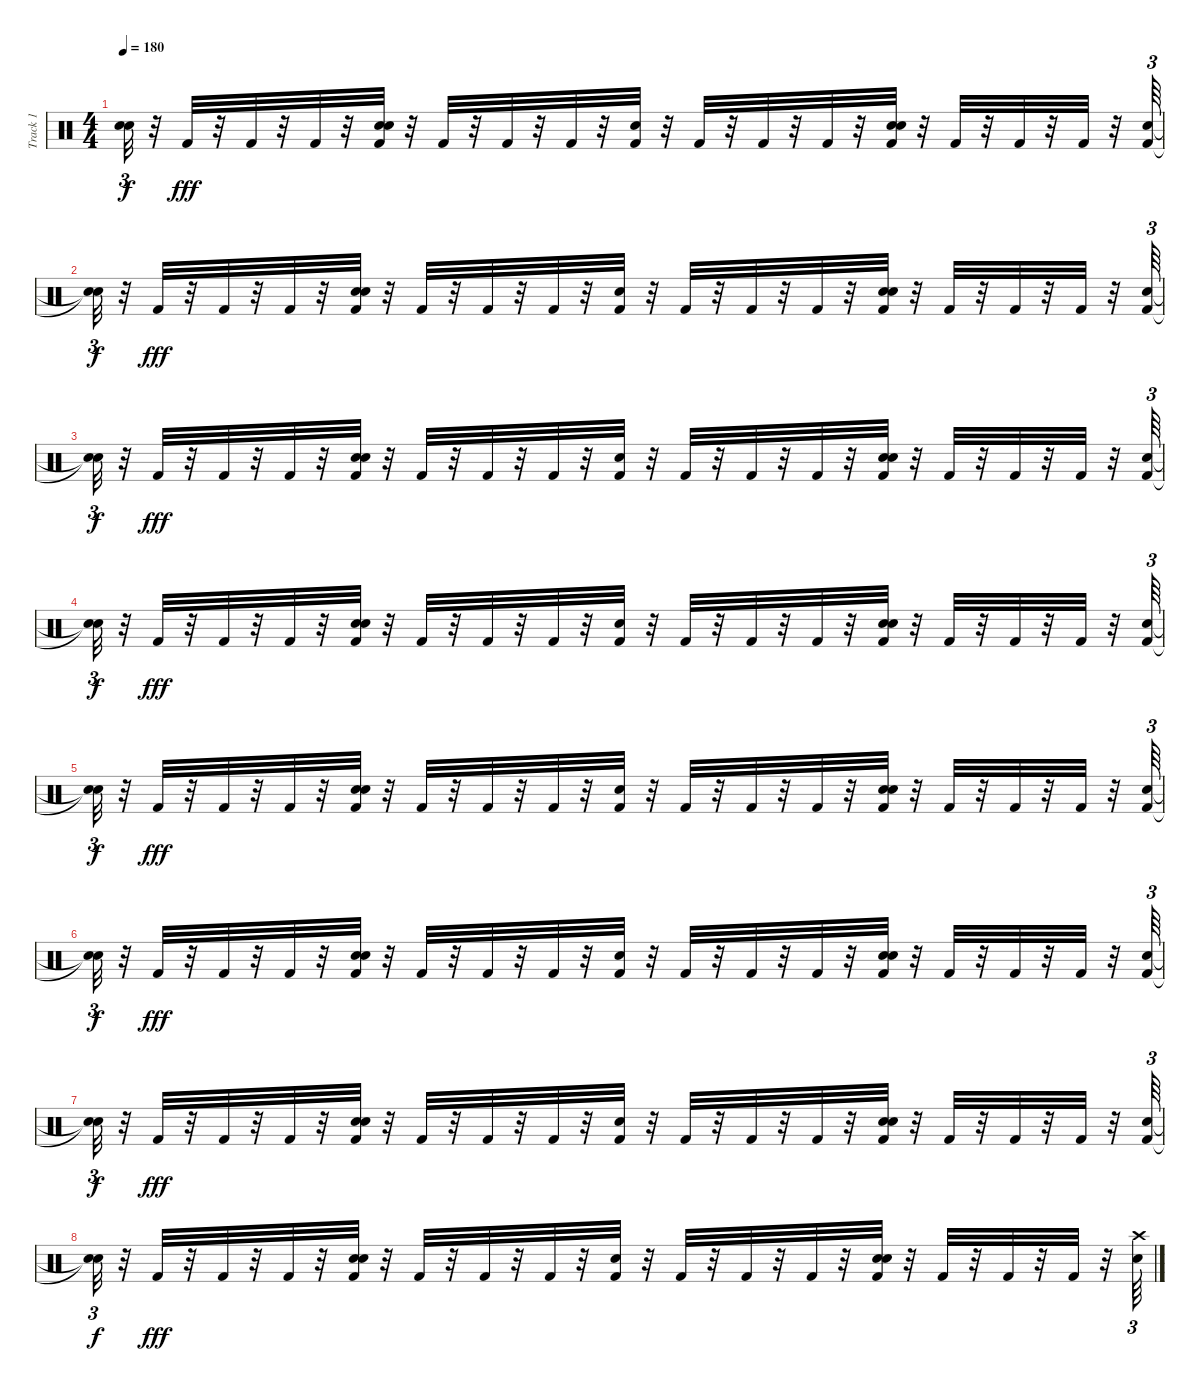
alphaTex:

\track ("Track 1" "Track 1") {mute instrument percussion}
\staff {score}
\articulation defaults
\ts (4 4)
\tempo 180
\clef neutral
\ks c
("Snare (hit)"{t} "Snare (hit)"{t}).32{tu (3 2) dy f} r.32 "Kick (hit) 2".32{dy fff} r.32 "Kick (hit) 2".32 r.32 "Kick (hit) 2".32 r.32 ("Snare (hit)" "Kick (hit) 2" "Snare (hit) 2").32 r.32 "Kick (hit) 2".32 r.32 "Kick (hit) 2".32 r.32 "Kick (hit) 2".32 r.32 ("Kick (hit) 2" "Snare (hit)").32 r.32 "Kick (hit) 2".32 r.32 "Kick (hit) 2".32 r.32 "Kick (hit) 2".32 r.32 ("Snare (hit)" "Kick (hit) 2" "Snare (hit) 2").32 r.32 "Kick (hit) 2".32 r.32 "Kick (hit) 2".32 r.32 "Kick (hit) 2".32 r.32 ("Kick (hit) 2" "Snare (hit)").64{tu (3 2)} |
("Snare (hit)"{t} "Snare (hit)"{t}).32{tu (3 2) dy f} r.32 "Kick (hit) 2".32{dy fff} r.32 "Kick (hit) 2".32 r.32 "Kick (hit) 2".32 r.32 ("Snare (hit)" "Kick (hit) 2" "Snare (hit) 2").32 r.32 "Kick (hit) 2".32 r.32 "Kick (hit) 2".32 r.32 "Kick (hit) 2".32 r.32 ("Kick (hit) 2" "Snare (hit)").32 r.32 "Kick (hit) 2".32 r.32 "Kick (hit) 2".32 r.32 "Kick (hit) 2".32 r.32 ("Snare (hit) 2" "Snare (hit)" "Kick (hit) 2").32 r.32 "Kick (hit) 2".32 r.32 "Kick (hit) 2".32 r.32 "Kick (hit) 2".32 r.32 ("Kick (hit) 2" "Snare (hit)").64{tu (3 2)} |
("Snare (hit)"{t} "Snare (hit)"{t}).32{tu (3 2) dy f} r.32 "Kick (hit) 2".32{dy fff} r.32 "Kick (hit) 2".32 r.32 "Kick (hit) 2".32 r.32 ("Snare (hit)" "Snare (hit) 2" "Kick (hit) 2").32 r.32 "Kick (hit) 2".32 r.32 "Kick (hit) 2".32 r.32 "Kick (hit) 2".32 r.32 ("Kick (hit) 2" "Snare (hit)").32 r.32 "Kick (hit) 2".32 r.32 "Kick (hit) 2".32 r.32 "Kick (hit) 2".32 r.32 ("Snare (hit) 2" "Snare (hit)" "Kick (hit) 2").32 r.32 "Kick (hit) 2".32 r.32 "Kick (hit) 2".32 r.32 "Kick (hit) 2".32 r.32 ("Kick (hit) 2" "Snare (hit)").64{tu (3 2)} |
("Snare (hit)"{t} "Snare (hit)"{t}).32{tu (3 2) dy f} r.32 "Kick (hit) 2".32{dy fff} r.32 "Kick (hit) 2".32 r.32 "Kick (hit) 2".32 r.32 ("Snare (hit)" "Kick (hit) 2" "Snare (hit) 2").32 r.32 "Kick (hit) 2".32 r.32 "Kick (hit) 2".32 r.32 "Kick (hit) 2".32 r.32 ("Kick (hit) 2" "Snare (hit)").32 r.32 "Kick (hit) 2".32 r.32 "Kick (hit) 2".32 r.32 "Kick (hit) 2".32 r.32 ("Snare (hit)" "Snare (hit) 2" "Kick (hit) 2").32 r.32 "Kick (hit) 2".32 r.32 "Kick (hit) 2".32 r.32 "Kick (hit) 2".32 r.32 ("Kick (hit) 2" "Snare (hit)").64{tu (3 2)} |
("Snare (hit)"{t} "Snare (hit)"{t}).32{tu (3 2) dy f} r.32 "Kick (hit) 2".32{dy fff} r.32 "Kick (hit) 2".32 r.32 "Kick (hit) 2".32 r.32 ("Snare (hit)" "Kick (hit) 2" "Snare (hit) 2").32 r.32 "Kick (hit) 2".32 r.32 "Kick (hit) 2".32 r.32 "Kick (hit) 2".32 r.32 ("Kick (hit) 2" "Snare (hit)").32 r.32 "Kick (hit) 2".32 r.32 "Kick (hit) 2".32 r.32 "Kick (hit) 2".32 r.32 ("Snare (hit)" "Kick (hit) 2" "Snare (hit) 2").32 r.32 "Kick (hit) 2".32 r.32 "Kick (hit) 2".32 r.32 "Kick (hit) 2".32 r.32 ("Kick (hit) 2" "Snare (hit)").64{tu (3 2)} |
("Snare (hit)"{t} "Snare (hit)"{t}).32{tu (3 2) dy f} r.32 "Kick (hit) 2".32{dy fff} r.32 "Kick (hit) 2".32 r.32 "Kick (hit) 2".32 r.32 ("Snare (hit)" "Kick (hit) 2" "Snare (hit) 2").32 r.32 "Kick (hit) 2".32 r.32 "Kick (hit) 2".32 r.32 "Kick (hit) 2".32 r.32 ("Kick (hit) 2" "Snare (hit)").32 r.32 "Kick (hit) 2".32 r.32 "Kick (hit) 2".32 r.32 "Kick (hit) 2".32 r.32 ("Snare (hit) 2" "Snare (hit)" "Kick (hit) 2").32 r.32 "Kick (hit) 2".32 r.32 "Kick (hit) 2".32 r.32 "Kick (hit) 2".32 r.32 ("Kick (hit) 2" "Snare (hit)").64{tu (3 2)} |
("Snare (hit)"{t} "Snare (hit)"{t}).32{tu (3 2) dy f} r.32 "Kick (hit) 2".32{dy fff} r.32 "Kick (hit) 2".32 r.32 "Kick (hit) 2".32 r.32 ("Snare (hit)" "Snare (hit) 2" "Kick (hit) 2").32 r.32 "Kick (hit) 2".32 r.32 "Kick (hit) 2".32 r.32 "Kick (hit) 2".32 r.32 ("Kick (hit) 2" "Snare (hit)").32 r.32 "Kick (hit) 2".32 r.32 "Kick (hit) 2".32 r.32 "Kick (hit) 2".32 r.32 ("Snare (hit) 2" "Snare (hit)" "Kick (hit) 2").32 r.32 "Kick (hit) 2".32 r.32 "Kick (hit) 2".32 r.32 "Kick (hit) 2".32 r.32 ("Kick (hit) 2" "Snare (hit)").64{tu (3 2)} |
("Snare (hit)"{t} "Snare (hit)"{t}).32{tu (3 2) dy f} r.32 "Kick (hit) 2".32{dy fff} r.32 "Kick (hit) 2".32 r.32 "Kick (hit) 2".32 r.32 ("Snare (hit)" "Kick (hit) 2" "Snare (hit) 2").32 r.32 "Kick (hit) 2".32 r.32 "Kick (hit) 2".32 r.32 "Kick (hit) 2".32 r.32 ("Kick (hit) 2" "Snare (hit)").32 r.32 "Kick (hit) 2".32 r.32 "Kick (hit) 2".32 r.32 "Kick (hit) 2".32 r.32 ("Snare (hit)" "Snare (hit) 2" "Kick (hit) 2").32 r.32 "Kick (hit) 2".32 r.32 "Kick (hit) 2".32 r.32 "Kick (hit) 2".32 r.32 ("Crash high (hit)" "Snare (hit) 2").64{tu (3 2)}
